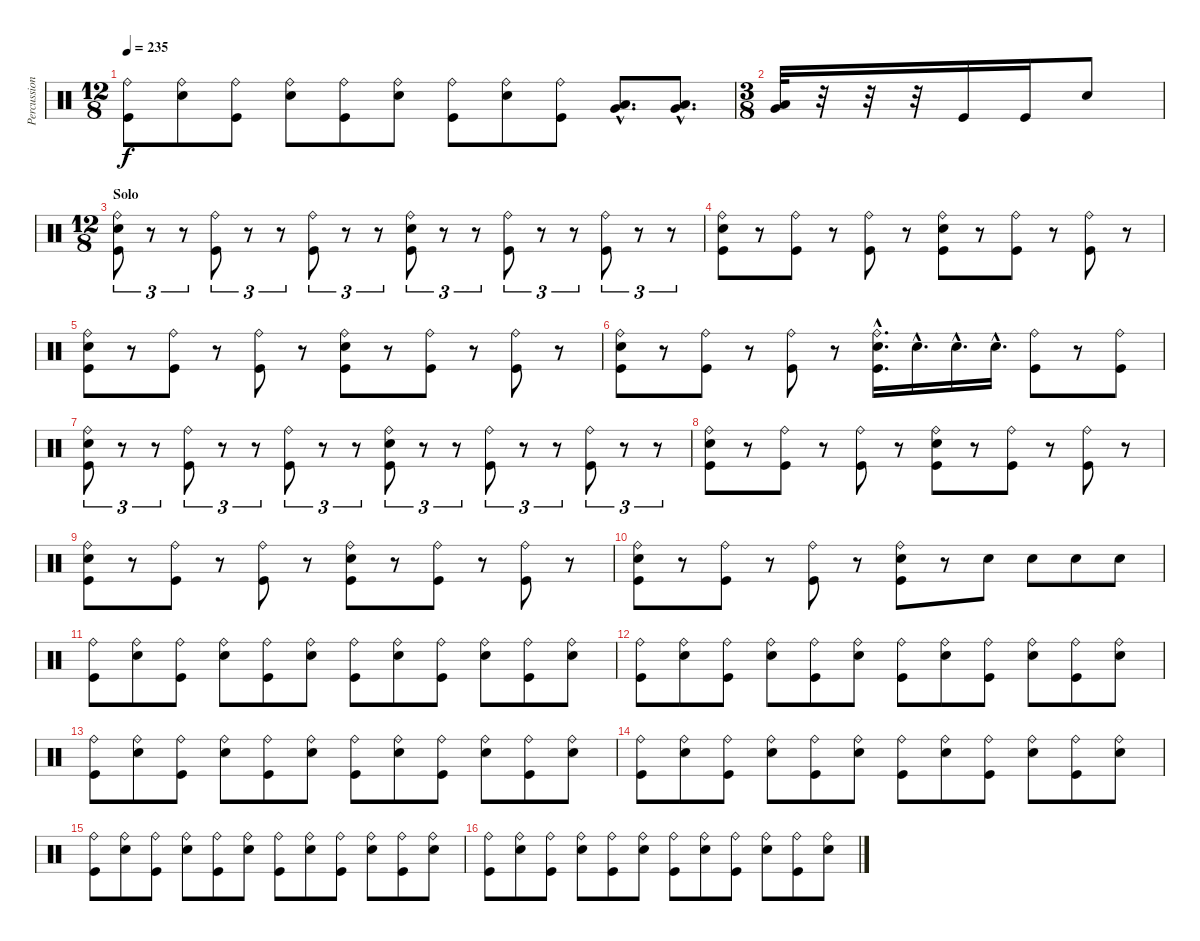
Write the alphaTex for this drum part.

\track ("Percussion" "Percussion") {instrument percussion}
\staff {score}
\articulation defaults
\ts (12 8)
\tempo 235
\clef neutral
\ks c
("Ride (bell)" "Kick (hit)").8{dy f} ("Ride (bell)" "Snare (hit) 2").8 ("Ride (bell)" "Kick (hit)").8 ("Ride (bell)" "Snare (hit) 2").8 ("Ride (bell)" "Kick (hit)").8 ("Ride (bell)" "Snare (hit) 2").8 ("Ride (bell)" "Kick (hit)").8 ("Ride (bell)" "Snare (hit) 2").8 ("Ride (bell)" "Kick (hit)").8 ("Low Floor Tom (hit)"{hac} "Very Low Tom (hit)"{hac}).8{d} ("Low Floor Tom (hit)"{hac} "Very Low Tom (hit)"{hac}).8{d} |
\ts (3 8)
("Low Floor Tom (hit)" "Very Low Tom (hit)").32 r.32 r.32 r.32 "Kick (hit)".16 "Kick (hit)".16 "Snare (hit) 2".8 |
\ts (12 8)
\section ("" "Solo")
("Ride (bell)" "Snare (hit) 2" "Kick (hit)").8{tu (3 2)} r.8{tu (3 2)} r.8{tu (3 2)} ("Ride (bell)" "Kick (hit)").8{tu (3 2)} r.8{tu (3 2)} r.8{tu (3 2)} ("Ride (bell)" "Kick (hit)").8{tu (3 2)} r.8{tu (3 2)} r.8{tu (3 2)} ("Ride (bell)" "Snare (hit) 2" "Kick (hit)").8{tu (3 2)} r.8{tu (3 2)} r.8{tu (3 2)} ("Ride (bell)" "Kick (hit)").8{tu (3 2)} r.8{tu (3 2)} r.8{tu (3 2)} ("Ride (bell)" "Kick (hit)").8{tu (3 2)} r.8{tu (3 2)} r.8{tu (3 2)} |
("Ride (bell)" "Snare (hit) 2" "Kick (hit)").8 r.8 ("Ride (bell)" "Kick (hit)").8 r.8 ("Ride (bell)" "Kick (hit)").8 r.8 ("Ride (bell)" "Snare (hit) 2" "Kick (hit)").8 r.8 ("Ride (bell)" "Kick (hit)").8 r.8 ("Ride (bell)" "Kick (hit)").8 r.8 |
("Ride (bell)" "Snare (hit) 2" "Kick (hit)").8 r.8 ("Ride (bell)" "Kick (hit)").8 r.8 ("Ride (bell)" "Kick (hit)").8 r.8 ("Ride (bell)" "Snare (hit) 2" "Kick (hit)").8 r.8 ("Ride (bell)" "Kick (hit)").8 r.8 ("Ride (bell)" "Kick (hit)").8 r.8 |
("Ride (bell)" "Snare (hit) 2" "Kick (hit)").8 r.8 ("Ride (bell)" "Kick (hit)").8 r.8 ("Ride (bell)" "Kick (hit)").8 r.8 ("Ride (bell)"{hac} "Snare (hit) 2"{hac} "Kick (hit)"{hac}).16{d} "Snare (hit) 2"{hac}.16{d} "Snare (hit) 2"{hac}.16{d} "Snare (hit) 2"{hac}.16{d} ("Ride (bell)" "Kick (hit)").8 r.8 ("Ride (bell)" "Kick (hit)").8 |
("Ride (bell)" "Snare (hit) 2" "Kick (hit)").8{tu (3 2)} r.8{tu (3 2)} r.8{tu (3 2)} ("Ride (bell)" "Kick (hit)").8{tu (3 2)} r.8{tu (3 2)} r.8{tu (3 2)} ("Ride (bell)" "Kick (hit)").8{tu (3 2)} r.8{tu (3 2)} r.8{tu (3 2)} ("Ride (bell)" "Snare (hit) 2" "Kick (hit)").8{tu (3 2)} r.8{tu (3 2)} r.8{tu (3 2)} ("Ride (bell)" "Kick (hit)").8{tu (3 2)} r.8{tu (3 2)} r.8{tu (3 2)} ("Ride (bell)" "Kick (hit)").8{tu (3 2)} r.8{tu (3 2)} r.8{tu (3 2)} |
("Ride (bell)" "Snare (hit) 2" "Kick (hit)").8 r.8 ("Ride (bell)" "Kick (hit)").8 r.8 ("Ride (bell)" "Kick (hit)").8 r.8 ("Ride (bell)" "Snare (hit) 2" "Kick (hit)").8 r.8 ("Ride (bell)" "Kick (hit)").8 r.8 ("Ride (bell)" "Kick (hit)").8 r.8 |
("Ride (bell)" "Snare (hit) 2" "Kick (hit)").8 r.8 ("Ride (bell)" "Kick (hit)").8 r.8 ("Ride (bell)" "Kick (hit)").8 r.8 ("Ride (bell)" "Snare (hit) 2" "Kick (hit)").8 r.8 ("Ride (bell)" "Kick (hit)").8 r.8 ("Ride (bell)" "Kick (hit)").8 r.8 |
("Ride (bell)" "Snare (hit) 2" "Kick (hit)").8 r.8 ("Ride (bell)" "Kick (hit)").8 r.8 ("Ride (bell)" "Kick (hit)").8 r.8 ("Ride (bell)" "Snare (hit) 2" "Kick (hit)").8 r.8 "Snare (hit) 2".8 "Snare (hit) 2".8 "Snare (hit) 2".8 "Snare (hit) 2".8 |
("Ride (bell)" "Kick (hit)").8 ("Ride (bell)" "Snare (hit) 2").8 ("Ride (bell)" "Kick (hit)").8 ("Ride (bell)" "Snare (hit) 2").8 ("Ride (bell)" "Kick (hit)").8 ("Ride (bell)" "Snare (hit) 2").8 ("Ride (bell)" "Kick (hit)").8 ("Ride (bell)" "Snare (hit) 2").8 ("Ride (bell)" "Kick (hit)").8 ("Ride (bell)" "Snare (hit) 2").8 ("Ride (bell)" "Kick (hit)").8 ("Ride (bell)" "Snare (hit) 2").8 |
("Ride (bell)" "Kick (hit)").8 ("Ride (bell)" "Snare (hit) 2").8 ("Ride (bell)" "Kick (hit)").8 ("Ride (bell)" "Snare (hit) 2").8 ("Ride (bell)" "Kick (hit)").8 ("Ride (bell)" "Snare (hit) 2").8 ("Ride (bell)" "Kick (hit)").8 ("Ride (bell)" "Snare (hit) 2").8 ("Ride (bell)" "Kick (hit)").8 ("Ride (bell)" "Snare (hit) 2").8 ("Ride (bell)" "Kick (hit)").8 ("Ride (bell)" "Snare (hit) 2").8 |
("Ride (bell)" "Kick (hit)").8 ("Ride (bell)" "Snare (hit) 2").8 ("Ride (bell)" "Kick (hit)").8 ("Ride (bell)" "Snare (hit) 2").8 ("Ride (bell)" "Kick (hit)").8 ("Ride (bell)" "Snare (hit) 2").8 ("Ride (bell)" "Kick (hit)").8 ("Ride (bell)" "Snare (hit) 2").8 ("Ride (bell)" "Kick (hit)").8 ("Ride (bell)" "Snare (hit) 2").8 ("Ride (bell)" "Kick (hit)").8 ("Ride (bell)" "Snare (hit) 2").8 |
("Ride (bell)" "Kick (hit)").8 ("Ride (bell)" "Snare (hit) 2").8 ("Ride (bell)" "Kick (hit)").8 ("Ride (bell)" "Snare (hit) 2").8 ("Ride (bell)" "Kick (hit)").8 ("Ride (bell)" "Snare (hit) 2").8 ("Ride (bell)" "Kick (hit)").8 ("Ride (bell)" "Snare (hit) 2").8 ("Ride (bell)" "Kick (hit)").8 ("Ride (bell)" "Snare (hit) 2").8 ("Ride (bell)" "Kick (hit)").8 ("Ride (bell)" "Snare (hit) 2").8 |
("Ride (bell)" "Kick (hit)").8 ("Ride (bell)" "Snare (hit) 2").8 ("Ride (bell)" "Kick (hit)").8 ("Ride (bell)" "Snare (hit) 2").8 ("Ride (bell)" "Kick (hit)").8 ("Ride (bell)" "Snare (hit) 2").8 ("Ride (bell)" "Kick (hit)").8 ("Ride (bell)" "Snare (hit) 2").8 ("Ride (bell)" "Kick (hit)").8 ("Ride (bell)" "Snare (hit) 2").8 ("Ride (bell)" "Kick (hit)").8 ("Ride (bell)" "Snare (hit) 2").8 |
("Ride (bell)" "Kick (hit)").8 ("Ride (bell)" "Snare (hit) 2").8 ("Ride (bell)" "Kick (hit)").8 ("Ride (bell)" "Snare (hit) 2").8 ("Ride (bell)" "Kick (hit)").8 ("Ride (bell)" "Snare (hit) 2").8 ("Ride (bell)" "Kick (hit)").8 ("Ride (bell)" "Snare (hit) 2").8 ("Ride (bell)" "Kick (hit)").8 ("Ride (bell)" "Snare (hit) 2").8 ("Ride (bell)" "Kick (hit)").8 ("Ride (bell)" "Snare (hit) 2").8
